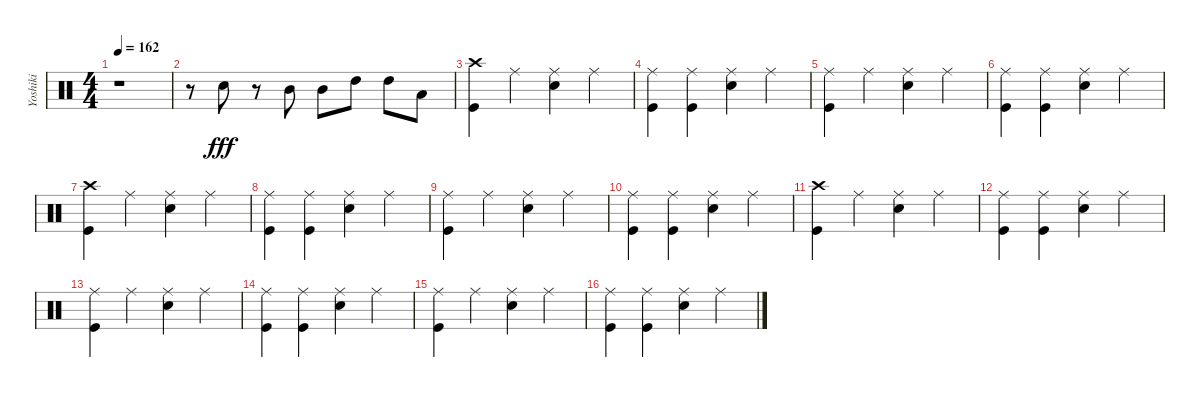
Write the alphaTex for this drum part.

\track ("Yoshiki" "Yoshiki") {instrument percussion}
\staff {score}
\articulation defaults
\ts (4 4)
\tempo 162
\clef neutral
\ks c
r.1{dy fff} |
r.8 "Snare (hit) 2".8 r.8 "Mid Tom (hit)".8 "Mid Tom (hit)".8 "High Tom (hit)".8 "High Tom (hit)".8 "Low Tom (hit)".8 |
("Crash high (hit)" "Kick (hit)").4 "Ride (middle)".4 ("Ride (middle)" "Snare (hit) 2").4 "Ride (middle)".4 |
("Ride (middle)" "Kick (hit)").4 ("Ride (middle)" "Kick (hit)").4 ("Ride (middle)" "Snare (hit) 2").4 "Ride (middle)".4 |
("Ride (middle)" "Kick (hit)").4 "Ride (middle)".4 ("Ride (middle)" "Snare (hit) 2").4 "Ride (middle)".4 |
("Ride (middle)" "Kick (hit)").4 ("Ride (middle)" "Kick (hit)").4 ("Ride (middle)" "Snare (hit) 2").4 "Ride (middle)".4 |
("Crash high (hit)" "Kick (hit)").4 "Ride (middle)".4 ("Ride (middle)" "Snare (hit) 2").4 "Ride (middle)".4 |
("Ride (middle)" "Kick (hit)").4 ("Ride (middle)" "Kick (hit)").4 ("Ride (middle)" "Snare (hit) 2").4 "Ride (middle)".4 |
("Ride (middle)" "Kick (hit)").4 "Ride (middle)".4 ("Ride (middle)" "Snare (hit) 2").4 "Ride (middle)".4 |
("Ride (middle)" "Kick (hit)").4 ("Ride (middle)" "Kick (hit)").4 ("Ride (middle)" "Snare (hit) 2").4 "Ride (middle)".4 |
("Crash high (hit)" "Kick (hit)").4 "Ride (middle)".4 ("Ride (middle)" "Snare (hit) 2").4 "Ride (middle)".4 |
("Ride (middle)" "Kick (hit)").4 ("Ride (middle)" "Kick (hit)").4 ("Ride (middle)" "Snare (hit) 2").4 "Ride (middle)".4 |
("Ride (middle)" "Kick (hit)").4 "Ride (middle)".4 ("Ride (middle)" "Snare (hit) 2").4 "Ride (middle)".4 |
("Ride (middle)" "Kick (hit)").4 ("Ride (middle)" "Kick (hit)").4 ("Ride (middle)" "Snare (hit) 2").4 "Ride (middle)".4 |
("Ride (middle)" "Kick (hit)").4 "Ride (middle)".4 ("Ride (middle)" "Snare (hit) 2").4 "Ride (middle)".4 |
("Ride (middle)" "Kick (hit)").4 ("Ride (middle)" "Kick (hit)").4 ("Ride (middle)" "Snare (hit) 2").4 "Ride (middle)".4
